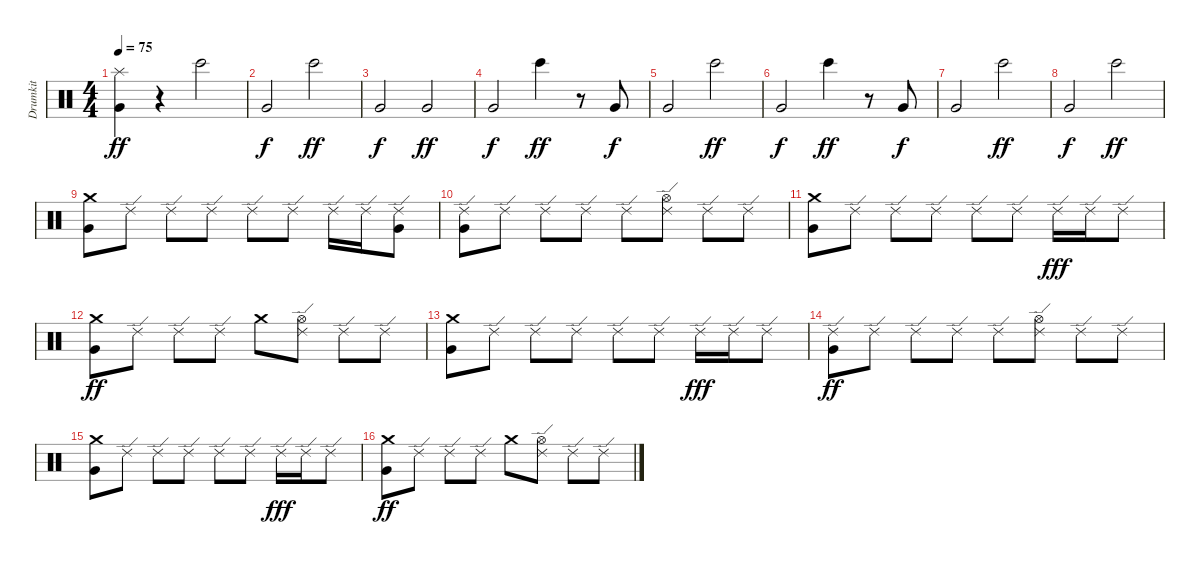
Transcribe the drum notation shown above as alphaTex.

\track ("Drumkit" "Drumkit") {instrument percussion}
\staff {score}
\articulation defaults
\ts (4 4)
\tempo 75
\clef neutral
\ks c
("Splash (hit)" "Very Low Tom (hit)").4{dy ff} r.4 "Bongo High (hit)".2 |
"Very Low Tom (hit)".2{dy f} "Bongo High (hit)".2{dy ff} |
"Very Low Tom (hit)".2{dy f} "Very Low Tom (hit)".2{dy ff} |
"Very Low Tom (hit)".2{dy f} "Bongo High (hit)".4{dy ff} r.8 "Very Low Tom (hit)".8{dy f} |
"Very Low Tom (hit)".2 "Bongo High (hit)".2{dy ff} |
"Very Low Tom (hit)".2{dy f} "Bongo High (hit)".4{dy ff} r.8 "Very Low Tom (hit)".8{dy f} |
"Very Low Tom (hit)".2 "Bongo High (hit)".2{dy ff} |
"Very Low Tom (hit)".2{dy f} "Bongo High (hit)".2{dy ff} |
("Crash medium (hit)" "Very Low Tom (hit)").8 "Ride (edge) 2".8 "Ride (edge) 2".8 "Ride (edge) 2".8 "Ride (edge) 2".8 "Ride (edge) 2".8 "Ride (edge) 2".16 "Ride (edge) 2".16 ("Ride (edge) 2" "Very Low Tom (hit)").8 |
("Ride (edge) 2" "Very Low Tom (hit)").8 "Ride (edge) 2".8 "Ride (edge) 2".8 "Ride (edge) 2".8 "Ride (edge) 2".8 ("Hi-Hat (open)" "Ride (edge) 2").8 "Ride (edge) 2".8 "Ride (edge) 2".8 |
("Crash medium (hit)" "Very Low Tom (hit)").8 "Ride (edge) 2".8 "Ride (edge) 2".8 "Ride (edge) 2".8 "Ride (edge) 2".8 "Ride (edge) 2".8 "Ride (edge) 2".16{dy fff} "Ride (edge) 2".16 "Ride (edge) 2".8 |
("Crash medium (hit)" "Very Low Tom (hit)").8{dy ff} "Ride (edge) 2".8 "Ride (edge) 2".8 "Ride (edge) 2".8 "Crash medium (hit)".8 ("Hi-Hat (open)" "Ride (edge) 2").8 "Ride (edge) 2".8 "Ride (edge) 2".8 |
("Crash medium (hit)" "Very Low Tom (hit)").8 "Ride (edge) 2".8 "Ride (edge) 2".8 "Ride (edge) 2".8 "Ride (edge) 2".8 "Ride (edge) 2".8 "Ride (edge) 2".16{dy fff} "Ride (edge) 2".16 "Ride (edge) 2".8 |
("Ride (edge) 2" "Very Low Tom (hit)").8{dy ff} "Ride (edge) 2".8 "Ride (edge) 2".8 "Ride (edge) 2".8 "Ride (edge) 2".8 ("Hi-Hat (open)" "Ride (edge) 2").8 "Ride (edge) 2".8 "Ride (edge) 2".8 |
("Crash medium (hit)" "Very Low Tom (hit)").8 "Ride (edge) 2".8 "Ride (edge) 2".8 "Ride (edge) 2".8 "Ride (edge) 2".8 "Ride (edge) 2".8 "Ride (edge) 2".16{dy fff} "Ride (edge) 2".16 "Ride (edge) 2".8 |
("Crash medium (hit)" "Very Low Tom (hit)").8{dy ff} "Ride (edge) 2".8 "Ride (edge) 2".8 "Ride (edge) 2".8 "Crash medium (hit)".8 ("Hi-Hat (open)" "Ride (edge) 2").8 "Ride (edge) 2".8 "Ride (edge) 2".8
